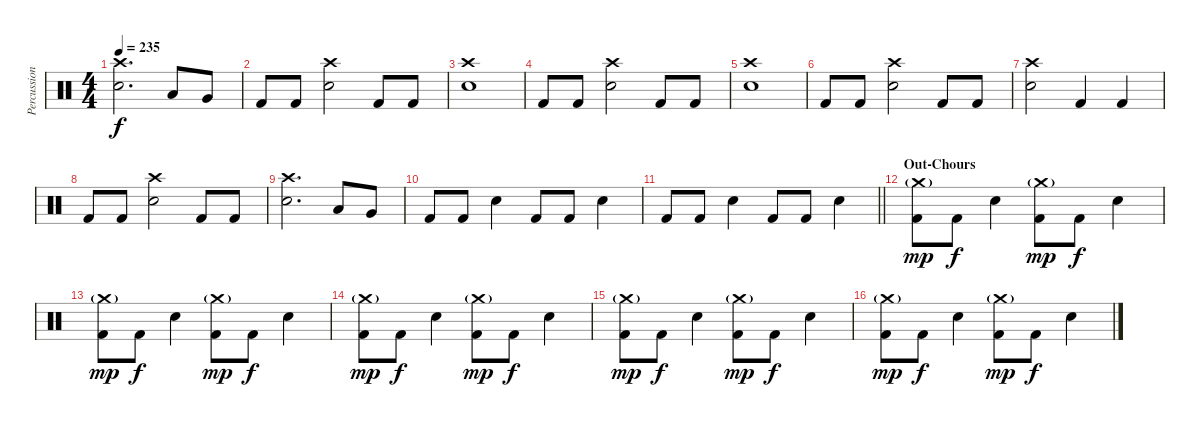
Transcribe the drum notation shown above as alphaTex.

\track ("Percussion" "Percussion") {instrument percussion}
\staff {score}
\articulation defaults
\ts (4 4)
\tempo 235
\clef neutral
\ks c
("Crash high (hit)" "Electric Snare (hit)").2{d dy f} "Low Tom (hit)".8 "Very Low Tom (hit)".8 |
"Kick (hit) 2".8 "Kick (hit) 2".8 ("Crash high (hit)" "Electric Snare (hit)").2 "Kick (hit) 2".8 "Kick (hit) 2".8 |
("Crash high (hit)" "Electric Snare (hit)").1 |
"Kick (hit) 2".8 "Kick (hit) 2".8 ("Electric Snare (hit)" "Crash high (hit)").2 "Kick (hit) 2".8 "Kick (hit) 2".8 |
("Electric Snare (hit)" "Crash high (hit)").1 |
"Kick (hit) 2".8 "Kick (hit) 2".8 ("Electric Snare (hit)" "Crash high (hit)").2 "Kick (hit) 2".8 "Kick (hit) 2".8 |
("Electric Snare (hit)" "Crash high (hit)").2 "Kick (hit) 2".4 "Kick (hit) 2".4 |
"Kick (hit) 2".8 "Kick (hit) 2".8 ("Crash high (hit)" "Electric Snare (hit)").2 "Kick (hit) 2".8 "Kick (hit) 2".8 |
("Crash high (hit)" "Electric Snare (hit)").2{d} "Low Tom (hit)".8 "Very Low Tom (hit)".8 |
"Kick (hit) 2".8 "Kick (hit) 2".8 "Electric Snare (hit)".4 "Kick (hit) 2".8 "Kick (hit) 2".8 "Electric Snare (hit)".4 |
\barLineRight lightlight "Kick (hit) 2".8 "Kick (hit) 2".8 "Electric Snare (hit)".4 "Kick (hit) 2".8 "Kick (hit) 2".8 "Electric Snare (hit)".4
|
\section ("" "Out-Chours")
("Crash medium (hit)"{g} "Kick (hit) 2").8{dy mp} "Kick (hit) 2".8{dy f} "Electric Snare (hit)".4 ("Crash medium (hit)"{g} "Kick (hit) 2").8{dy mp} "Kick (hit) 2".8{dy f} "Electric Snare (hit)".4 |
("Crash medium (hit)"{g} "Kick (hit) 2").8{dy mp} "Kick (hit) 2".8{dy f} "Electric Snare (hit)".4 ("Crash medium (hit)"{g} "Kick (hit) 2").8{dy mp} "Kick (hit) 2".8{dy f} "Electric Snare (hit)".4 |
("Crash medium (hit)"{g} "Kick (hit) 2").8{dy mp} "Kick (hit) 2".8{dy f} "Electric Snare (hit)".4 ("Crash medium (hit)"{g} "Kick (hit) 2").8{dy mp} "Kick (hit) 2".8{dy f} "Electric Snare (hit)".4 |
("Crash medium (hit)"{g} "Kick (hit) 2").8{dy mp} "Kick (hit) 2".8{dy f} "Electric Snare (hit)".4 ("Crash medium (hit)"{g} "Kick (hit) 2").8{dy mp} "Kick (hit) 2".8{dy f} "Electric Snare (hit)".4 |
("Crash medium (hit)"{g} "Kick (hit) 2").8{dy mp} "Kick (hit) 2".8{dy f} "Electric Snare (hit)".4 ("Crash medium (hit)"{g} "Kick (hit) 2").8{dy mp} "Kick (hit) 2".8{dy f} "Electric Snare (hit)".4
